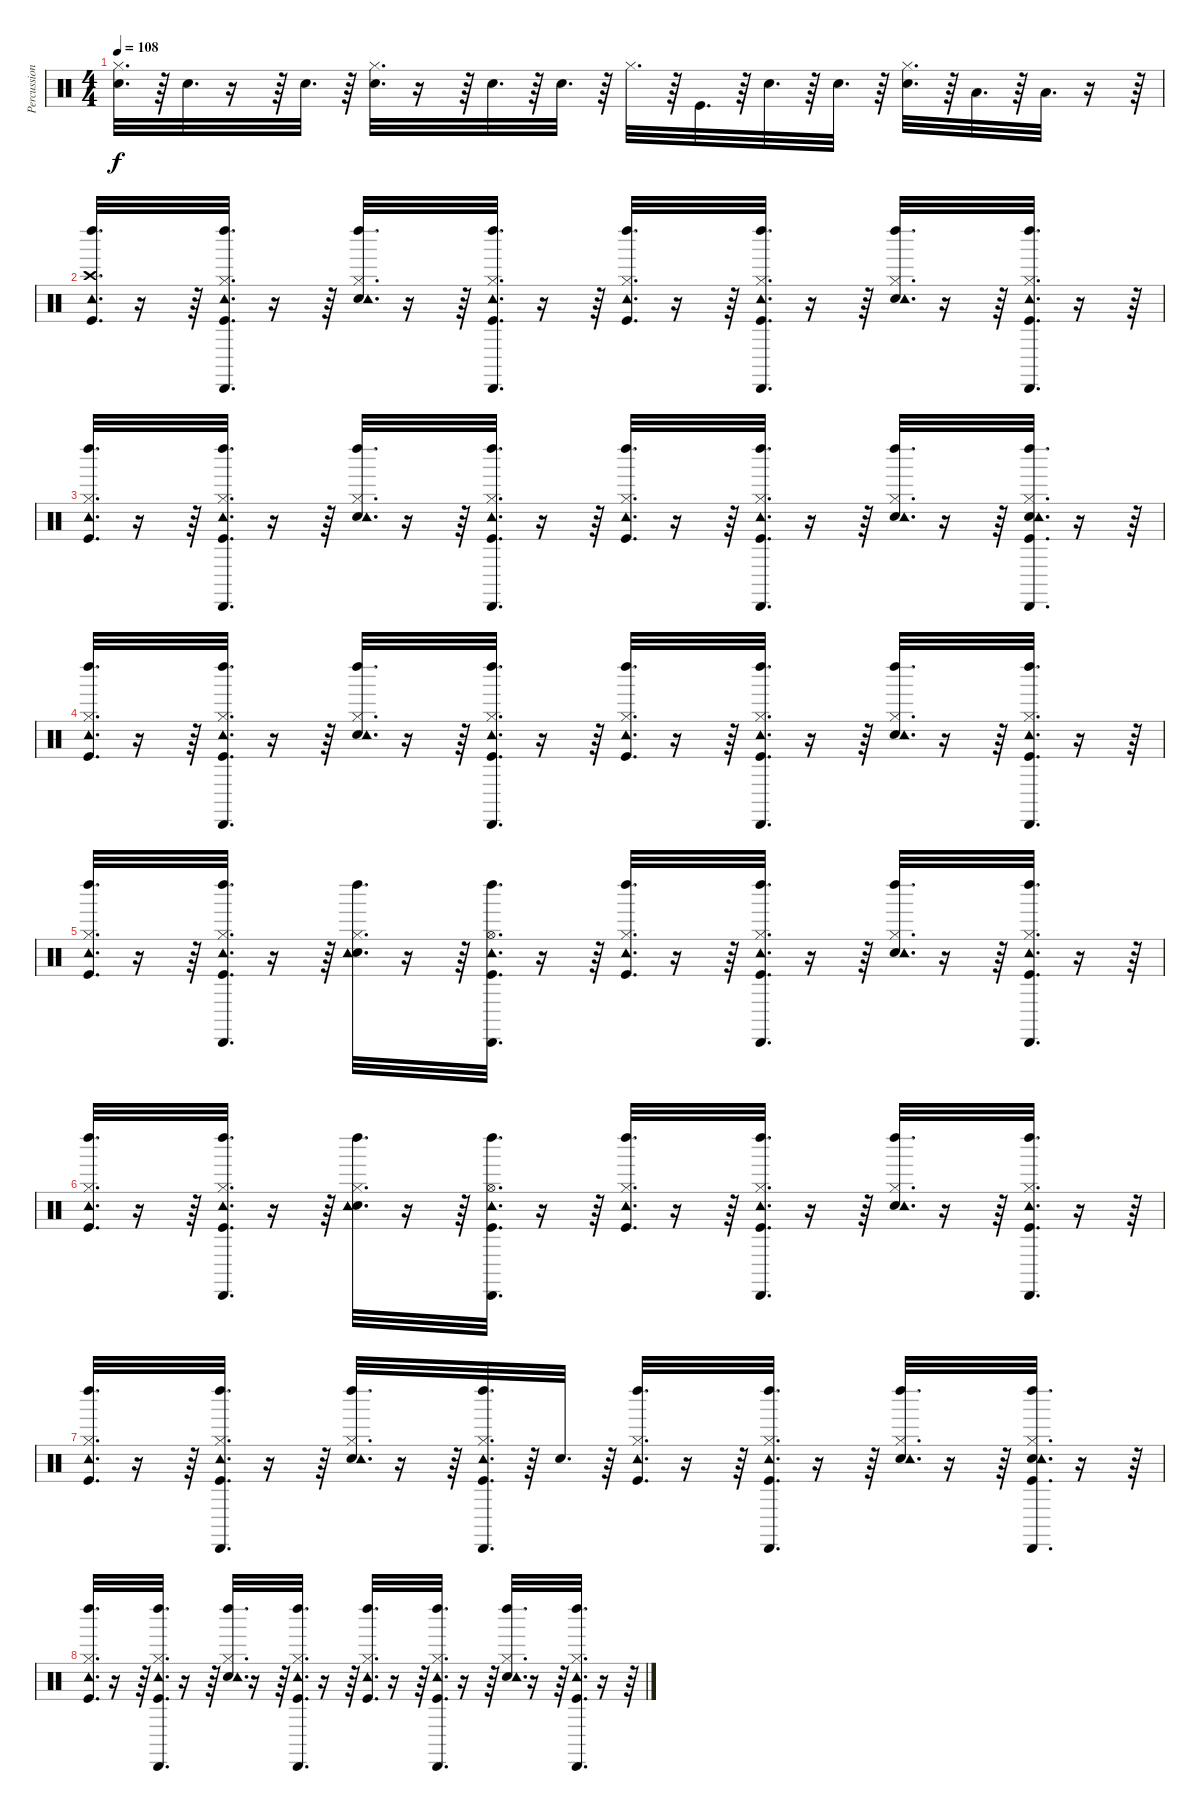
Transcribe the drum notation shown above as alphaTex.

\track ("Percussions" "Percussion") {instrument percussion}
\staff {score}
\articulation defaults
\ts (4 4)
\tempo 108
\clef neutral
\ks c
("Hi-Hat (closed)" "Snare (hit) 2").32{d dy f} r.64 "Snare (hit) 2".32{d} r.16 r.64 "Snare (hit) 2".32{d} r.64 ("Hi-Hat (closed)" "Snare (hit) 2").32{d} r.16 r.64 "Snare (hit) 2".32{d} r.64 "Snare (hit) 2".32{d} r.64 "Hi-Hat (closed)".32{d} r.64 "Kick (hit)".32{d} r.64 "Snare (hit) 2".32{d} r.64 "Snare (hit) 2".32{d} r.64 ("Hi-Hat (closed)" "Snare (hit) 2").32{d} r.64 "Low Tom (hit)".32{d} r.64 "Low Tom (hit)".32{d} r.16 r.64 |
("Left Maraca (hit)" "Kick (hit)" "Crash high (hit)" "Tambourine (hit)").32{d} r.16 r.64 ("Cabasa (hit)" "Tambourine (hit)" "Kick (hit)" "Hi-Hat (closed)" "Left Maraca (hit)").32{d} r.16 r.64 ("Left Maraca (hit)" "Snare (hit) 2" "Hi-Hat (closed)" "Tambourine (hit)").32{d} r.16 r.64 ("Cabasa (hit)" "Tambourine (hit)" "Kick (hit)" "Hi-Hat (closed)" "Left Maraca (hit)").32{d} r.16 r.64 ("Left Maraca (hit)" "Kick (hit)" "Hi-Hat (closed)" "Tambourine (hit)").32{d} r.16 r.64 ("Cabasa (hit)" "Tambourine (hit)" "Kick (hit)" "Hi-Hat (closed)" "Left Maraca (hit)").32{d} r.16 r.64 ("Left Maraca (hit)" "Snare (hit) 2" "Hi-Hat (closed)" "Tambourine (hit)").32{d} r.16 r.64 ("Cabasa (hit)" "Tambourine (hit)" "Kick (hit)" "Hi-Hat (closed)" "Left Maraca (hit)").32{d} r.16 r.64 |
("Left Maraca (hit)" "Kick (hit)" "Hi-Hat (closed)" "Tambourine (hit)").32{d} r.16 r.64 ("Cabasa (hit)" "Tambourine (hit)" "Kick (hit)" "Hi-Hat (closed)" "Left Maraca (hit)").32{d} r.16 r.64 ("Left Maraca (hit)" "Snare (hit) 2" "Hi-Hat (closed)" "Tambourine (hit)").32{d} r.16 r.64 ("Cabasa (hit)" "Tambourine (hit)" "Kick (hit)" "Hi-Hat (closed)" "Left Maraca (hit)").32{d} r.16 r.64 ("Left Maraca (hit)" "Kick (hit)" "Hi-Hat (closed)" "Tambourine (hit)").32{d} r.16 r.64 ("Cabasa (hit)" "Tambourine (hit)" "Kick (hit)" "Hi-Hat (closed)" "Left Maraca (hit)").32{d} r.16 r.64 ("Left Maraca (hit)" "Snare (hit) 2" "Hi-Hat (closed)" "Tambourine (hit)").32{d} r.16 r.64 ("Cabasa (hit)" "Snare (hit) 2" "Hi-Hat (closed)" "Kick (hit)" "Left Maraca (hit)" "Tambourine (hit)").32{d} r.16 r.64 |
("Left Maraca (hit)" "Kick (hit)" "Hi-Hat (closed)" "Tambourine (hit)").32{d} r.16 r.64 ("Cabasa (hit)" "Tambourine (hit)" "Kick (hit)" "Hi-Hat (closed)" "Left Maraca (hit)").32{d} r.16 r.64 ("Left Maraca (hit)" "Snare (hit) 2" "Hi-Hat (closed)" "Tambourine (hit)").32{d} r.16 r.64 ("Cabasa (hit)" "Tambourine (hit)" "Kick (hit)" "Hi-Hat (closed)" "Left Maraca (hit)").32{d} r.16 r.64 ("Left Maraca (hit)" "Kick (hit)" "Hi-Hat (closed)" "Tambourine (hit)").32{d} r.16 r.64 ("Cabasa (hit)" "Tambourine (hit)" "Kick (hit)" "Hi-Hat (closed)" "Left Maraca (hit)").32{d} r.16 r.64 ("Left Maraca (hit)" "Snare (hit) 2" "Hi-Hat (closed)" "Tambourine (hit)").32{d} r.16 r.64 ("Cabasa (hit)" "Tambourine (hit)" "Kick (hit)" "Hi-Hat (closed)" "Left Maraca (hit)").32{d} r.16 r.64 |
("Left Maraca (hit)" "Kick (hit)" "Hi-Hat (closed)" "Tambourine (hit)").32{d} r.16 r.64 ("Cabasa (hit)" "Tambourine (hit)" "Kick (hit)" "Hi-Hat (closed)" "Left Maraca (hit)").32{d} r.16 r.64 ("Left Maraca (hit)" "Snare (hit) 2" "Hi-Hat (closed)" "Tambourine (hit)").32{d} r.16 r.64 ("Cabasa (hit)" "Tambourine (hit)" "Kick (hit)" "Hi-Hat (open)" "Left Maraca (hit)").32{d} r.16 r.64 ("Left Maraca (hit)" "Kick (hit)" "Hi-Hat (closed)" "Tambourine (hit)").32{d} r.16 r.64 ("Cabasa (hit)" "Tambourine (hit)" "Kick (hit)" "Hi-Hat (closed)" "Left Maraca (hit)").32{d} r.16 r.64 ("Left Maraca (hit)" "Snare (hit) 2" "Hi-Hat (closed)" "Tambourine (hit)").32{d} r.16 r.64 ("Cabasa (hit)" "Tambourine (hit)" "Kick (hit)" "Hi-Hat (closed)" "Left Maraca (hit)").32{d} r.16 r.64 |
("Left Maraca (hit)" "Kick (hit)" "Hi-Hat (closed)" "Tambourine (hit)").32{d} r.16 r.64 ("Cabasa (hit)" "Tambourine (hit)" "Kick (hit)" "Hi-Hat (closed)" "Left Maraca (hit)").32{d} r.16 r.64 ("Left Maraca (hit)" "Snare (hit) 2" "Hi-Hat (closed)" "Tambourine (hit)").32{d} r.16 r.64 ("Cabasa (hit)" "Tambourine (hit)" "Kick (hit)" "Hi-Hat (open)" "Left Maraca (hit)").32{d} r.16 r.64 ("Left Maraca (hit)" "Kick (hit)" "Hi-Hat (closed)" "Tambourine (hit)").32{d} r.16 r.64 ("Cabasa (hit)" "Tambourine (hit)" "Kick (hit)" "Hi-Hat (closed)" "Left Maraca (hit)").32{d} r.16 r.64 ("Left Maraca (hit)" "Snare (hit) 2" "Hi-Hat (closed)" "Tambourine (hit)").32{d} r.16 r.64 ("Cabasa (hit)" "Tambourine (hit)" "Kick (hit)" "Hi-Hat (closed)" "Left Maraca (hit)").32{d} r.16 r.64 |
("Left Maraca (hit)" "Kick (hit)" "Hi-Hat (closed)" "Tambourine (hit)").32{d} r.16 r.64 ("Cabasa (hit)" "Tambourine (hit)" "Kick (hit)" "Hi-Hat (closed)" "Left Maraca (hit)").32{d} r.16 r.64 ("Left Maraca (hit)" "Snare (hit) 2" "Hi-Hat (closed)" "Tambourine (hit)").32{d} r.16 r.64 ("Cabasa (hit)" "Tambourine (hit)" "Kick (hit)" "Hi-Hat (closed)" "Left Maraca (hit)").32{d} r.64 "Snare (hit) 2".32{d} r.64 ("Left Maraca (hit)" "Kick (hit)" "Hi-Hat (closed)" "Tambourine (hit)").32{d} r.16 r.64 ("Cabasa (hit)" "Tambourine (hit)" "Kick (hit)" "Hi-Hat (closed)" "Left Maraca (hit)").32{d} r.16 r.64 ("Left Maraca (hit)" "Snare (hit) 2" "Hi-Hat (closed)" "Tambourine (hit)").32{d} r.16 r.64 ("Cabasa (hit)" "Snare (hit) 2" "Hi-Hat (closed)" "Kick (hit)" "Left Maraca (hit)" "Tambourine (hit)").32{d} r.16 r.64 |
("Left Maraca (hit)" "Kick (hit)" "Hi-Hat (closed)" "Tambourine (hit)").32{d} r.16 r.64 ("Cabasa (hit)" "Tambourine (hit)" "Kick (hit)" "Hi-Hat (closed)" "Left Maraca (hit)").32{d} r.16 r.64 ("Left Maraca (hit)" "Snare (hit) 2" "Hi-Hat (closed)" "Tambourine (hit)").32{d} r.16 r.64 ("Cabasa (hit)" "Tambourine (hit)" "Kick (hit)" "Hi-Hat (closed)" "Left Maraca (hit)").32{d} r.16 r.64 ("Left Maraca (hit)" "Kick (hit)" "Hi-Hat (closed)" "Tambourine (hit)").32{d} r.16 r.64 ("Cabasa (hit)" "Tambourine (hit)" "Kick (hit)" "Hi-Hat (closed)" "Left Maraca (hit)").32{d} r.16 r.64 ("Left Maraca (hit)" "Snare (hit) 2" "Hi-Hat (closed)" "Tambourine (hit)").32{d} r.16 r.64 ("Cabasa (hit)" "Tambourine (hit)" "Kick (hit)" "Hi-Hat (closed)" "Left Maraca (hit)").32{d} r.16 r.64
